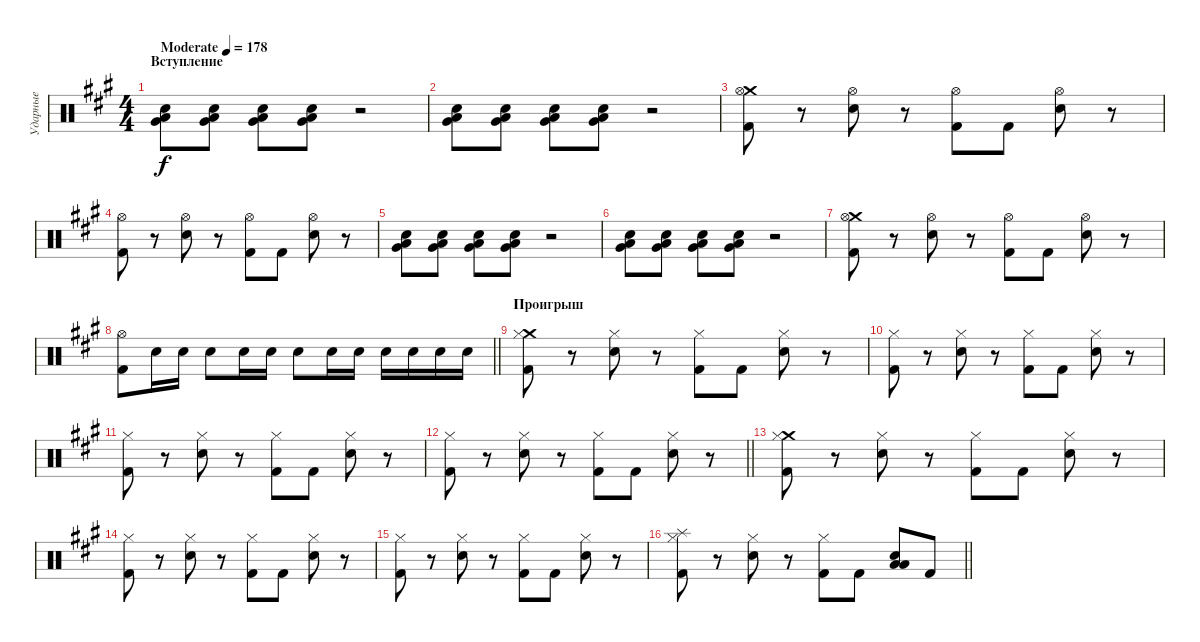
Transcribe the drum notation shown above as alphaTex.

\track ("Ударные" "Ударные") {instrument percussion}
\staff {score}
\articulation defaults
\ts (4 4)
\section ("" "Вступление")
\tempo (178 "Moderate")
\clef neutral
\ks f#minor
("Electric Snare (hit)" "Very Low Tom (hit)" "Low Floor Tom (hit)").8{dy f} ("Electric Snare (hit)" "Very Low Tom (hit)" "Low Floor Tom (hit)").8 ("Electric Snare (hit)" "Very Low Tom (hit)" "Low Floor Tom (hit)").8 ("Electric Snare (hit)" "Very Low Tom (hit)" "Low Floor Tom (hit)").8 r.2 |
("Electric Snare (hit)" "Very Low Tom (hit)" "Low Floor Tom (hit)").8 ("Electric Snare (hit)" "Very Low Tom (hit)" "Low Floor Tom (hit)").8 ("Electric Snare (hit)" "Very Low Tom (hit)" "Low Floor Tom (hit)").8 ("Electric Snare (hit)" "Very Low Tom (hit)" "Low Floor Tom (hit)").8 r.2 |
("Crash medium (hit)" "Kick (hit) 2" "Hi-Hat (open)").8 r.8 ("Electric Snare (hit)" "Hi-Hat (open)").8 r.8 ("Kick (hit) 2" "Hi-Hat (open)").8 "Kick (hit) 2".8 ("Electric Snare (hit)" "Hi-Hat (open)").8 r.8 |
("Kick (hit) 2" "Hi-Hat (open)").8 r.8 ("Electric Snare (hit)" "Hi-Hat (open)").8 r.8 ("Kick (hit) 2" "Hi-Hat (open)").8 "Kick (hit) 2".8 ("Electric Snare (hit)" "Hi-Hat (open)").8 r.8 |
("Electric Snare (hit)" "Very Low Tom (hit)" "Low Floor Tom (hit)").8 ("Electric Snare (hit)" "Very Low Tom (hit)" "Low Floor Tom (hit)").8 ("Electric Snare (hit)" "Very Low Tom (hit)" "Low Floor Tom (hit)").8 ("Electric Snare (hit)" "Very Low Tom (hit)" "Low Floor Tom (hit)").8 r.2 |
("Electric Snare (hit)" "Very Low Tom (hit)" "Low Floor Tom (hit)").8 ("Electric Snare (hit)" "Very Low Tom (hit)" "Low Floor Tom (hit)").8 ("Electric Snare (hit)" "Very Low Tom (hit)" "Low Floor Tom (hit)").8 ("Electric Snare (hit)" "Very Low Tom (hit)" "Low Floor Tom (hit)").8 r.2 |
("Crash medium (hit)" "Kick (hit) 2" "Hi-Hat (open)").8 r.8 ("Electric Snare (hit)" "Hi-Hat (open)").8 r.8 ("Kick (hit) 2" "Hi-Hat (open)").8 "Kick (hit) 2".8 ("Electric Snare (hit)" "Hi-Hat (open)").8 r.8 |
\barLineRight lightlight
("Kick (hit) 2" "Hi-Hat (open)").8 "Electric Snare (hit)".16 "Electric Snare (hit)".16 "Electric Snare (hit)".8 "Electric Snare (hit)".16 "Electric Snare (hit)".16 "Electric Snare (hit)".8 "Electric Snare (hit)".16 "Electric Snare (hit)".16 "Electric Snare (hit)".16 "Electric Snare (hit)".16 "Electric Snare (hit)".16 "Electric Snare (hit)".16 |
\section ("" "Проигрыш")
("Crash medium (hit)" "Kick (hit) 2" "Hi-Hat (closed)").8 r.8 ("Electric Snare (hit)" "Hi-Hat (closed)").8 r.8 ("Kick (hit) 2" "Hi-Hat (closed)").8 "Kick (hit) 2".8 ("Electric Snare (hit)" "Hi-Hat (closed)").8 r.8 |
("Kick (hit) 2" "Hi-Hat (closed)").8 r.8 ("Electric Snare (hit)" "Hi-Hat (closed)").8 r.8 ("Kick (hit) 2" "Hi-Hat (closed)").8 "Kick (hit) 2".8 ("Electric Snare (hit)" "Hi-Hat (closed)").8 r.8 |
("Kick (hit) 2" "Hi-Hat (closed)").8 r.8 ("Electric Snare (hit)" "Hi-Hat (closed)").8 r.8 ("Kick (hit) 2" "Hi-Hat (closed)").8 "Kick (hit) 2".8 ("Electric Snare (hit)" "Hi-Hat (closed)").8 r.8 |
\barLineRight lightlight
("Kick (hit) 2" "Hi-Hat (closed)").8 r.8 ("Electric Snare (hit)" "Hi-Hat (closed)").8 r.8 ("Kick (hit) 2" "Hi-Hat (closed)").8 "Kick (hit) 2".8 ("Electric Snare (hit)" "Hi-Hat (closed)").8 r.8 |
("Crash medium (hit)" "Kick (hit) 2" "Hi-Hat (closed)").8 r.8 ("Electric Snare (hit)" "Hi-Hat (closed)").8 r.8 ("Kick (hit) 2" "Hi-Hat (closed)").8 "Kick (hit) 2".8 ("Electric Snare (hit)" "Hi-Hat (closed)").8 r.8 |
("Kick (hit) 2" "Hi-Hat (closed)").8 r.8 ("Electric Snare (hit)" "Hi-Hat (closed)").8 r.8 ("Kick (hit) 2" "Hi-Hat (closed)").8 "Kick (hit) 2".8 ("Electric Snare (hit)" "Hi-Hat (closed)").8 r.8 |
("Kick (hit) 2" "Hi-Hat (closed)").8 r.8 ("Electric Snare (hit)" "Hi-Hat (closed)").8 r.8 ("Kick (hit) 2" "Hi-Hat (closed)").8 "Kick (hit) 2".8 ("Electric Snare (hit)" "Hi-Hat (closed)").8 r.8 |
\barLineRight lightlight
("Splash (hit)" "Kick (hit) 2" "Hi-Hat (closed)").8 r.8 ("Electric Snare (hit)" "Hi-Hat (closed)").8 r.8 ("Kick (hit) 2" "Hi-Hat (closed)").8 "Kick (hit) 2".8 ("Low Tom (hit)" "Electric Snare (hit)" "Low Floor Tom (hit)").8 "Kick (hit) 2".8
